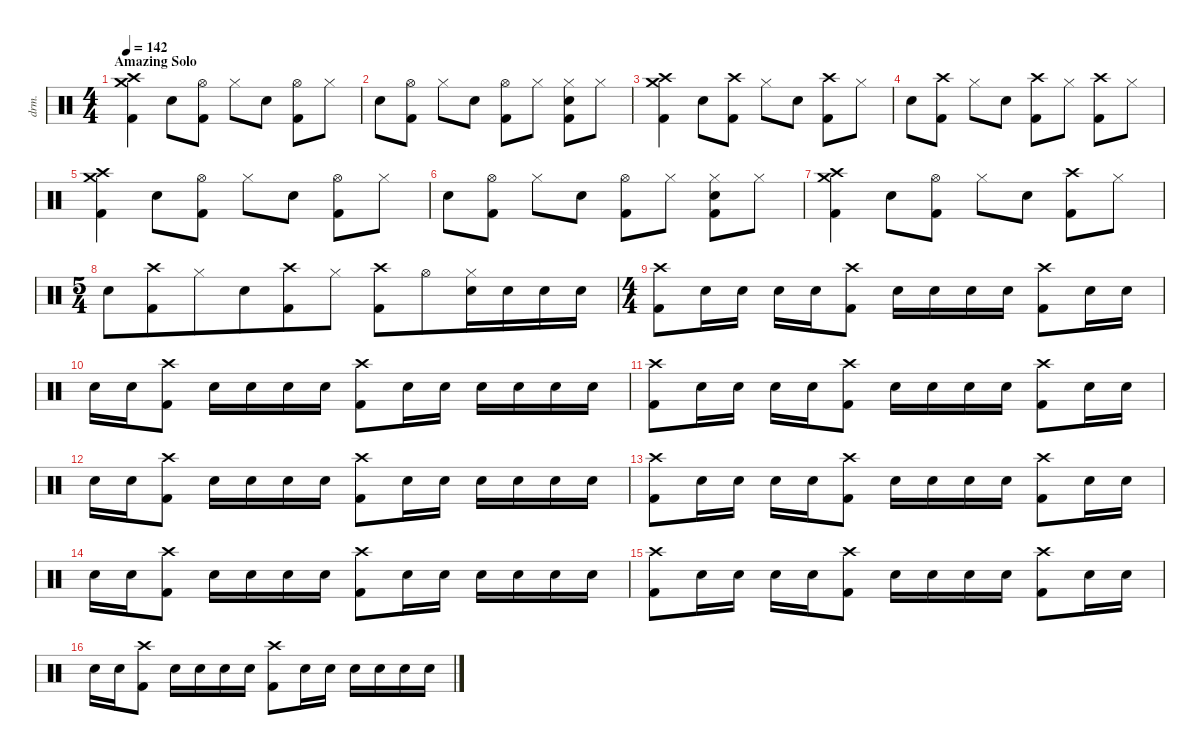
\defaultSystemsLayout 4
\hideDynamics
\bracketExtendMode nobrackets
\otherSystemsTrackNameOrientation horizontal
\track ("Drums" "drm.") {defaultSystemsLayout 4 instrument percussion}
\staff {score}
\articulation defaults
\ts (4 4)
\beaming (8 2 2 2 2)
\section ("" "Amazing Solo")
\tempo 142
\clef neutral
\ks c
("Crash high (hit)" "Crash medium (hit)" "Kick (hit) 2").4{dy f beam Down} "Snare (hit) 2".8{beam Down} ("Hi-Hat (open)" "Kick (hit) 2").8{beam Down} "Hi-Hat (closed)".8{beam Down} "Snare (hit) 2".8{beam Down} ("Hi-Hat (open)" "Kick (hit) 2").8{beam Down} "Hi-Hat (closed)".8{beam Down} |
"Snare (hit) 2".8{beam Down} ("Hi-Hat (open)" "Kick (hit) 2").8{beam Down} "Hi-Hat (closed)".8{beam Down} "Snare (hit) 2".8{beam Down} ("Hi-Hat (open)" "Kick (hit) 2").8{beam Down} "Hi-Hat (closed)".8{beam Down} ("Hi-Hat (closed)" "Snare (hit) 2" "Kick (hit) 2").8{beam Down} "Hi-Hat (closed)".8{beam Down} |
("Crash high (hit)" "Crash medium (hit)" "Kick (hit) 2").4{beam Down} "Snare (hit) 2".8{beam Down} ("Crash high (hit)" "Kick (hit) 2").8{beam Down} "Hi-Hat (closed)".8{beam Down} "Snare (hit) 2".8{beam Down} ("Crash high (hit)" "Kick (hit) 2").8{beam Down} "Hi-Hat (closed)".8{beam Down} |
"Snare (hit) 2".8{beam Down} ("Crash high (hit)" "Kick (hit) 2").8{beam Down} "Hi-Hat (closed)".8{beam Down} "Snare (hit) 2".8{beam Down} ("Crash high (hit)" "Kick (hit) 2").8{beam Down} "Hi-Hat (closed)".8{beam Down} ("Crash high (hit)" "Kick (hit) 2").8{beam Down} "Hi-Hat (closed)".8{beam Down} |
("Crash high (hit)" "Crash medium (hit)" "Kick (hit) 2").4{beam Down} "Snare (hit) 2".8{beam Down} ("Hi-Hat (open)" "Kick (hit) 2").8{beam Down} "Hi-Hat (closed)".8{beam Down} "Snare (hit) 2".8{beam Down} ("Hi-Hat (open)" "Kick (hit) 2").8{beam Down} "Hi-Hat (closed)".8{beam Down} |
"Snare (hit) 2".8{beam Down} ("Hi-Hat (open)" "Kick (hit) 2").8{beam Down} "Hi-Hat (closed)".8{beam Down} "Snare (hit) 2".8{beam Down} ("Hi-Hat (open)" "Kick (hit) 2").8{beam Down} "Hi-Hat (closed)".8{beam Down} ("Hi-Hat (closed)" "Snare (hit) 2" "Kick (hit) 2").8{beam Down} "Hi-Hat (closed)".8{beam Down} |
("Crash high (hit)" "Crash medium (hit)" "Kick (hit) 2").4{beam Down} "Snare (hit) 2".8{beam Down} ("Hi-Hat (open)" "Kick (hit) 2").8{beam Down} "Hi-Hat (closed)".8{beam Down} "Snare (hit) 2".8{beam Down} ("Crash high (hit)" "Kick (hit) 2").8{beam Down} "Hi-Hat (closed)".8{beam Down} |
\ts (5 4)
\beaming (8 6 4)
"Snare (hit) 2".8{beam Down} ("Crash high (hit)" "Kick (hit) 2").8{beam Down} "Hi-Hat (closed)".8{beam Down} "Snare (hit) 2".8{beam Down} ("Crash high (hit)" "Kick (hit) 2").8{beam Down} "Hi-Hat (closed)".8{beam Down} ("Crash high (hit)" "Kick (hit) 2").8{beam Down} "Hi-Hat (open)".8{beam Down} ("Hi-Hat (closed)" "Snare (hit) 2").16{beam Down} "Snare (hit) 2".16{beam Down} "Snare (hit) 2".16{beam Down} "Snare (hit) 2".16{beam Down} |
\ts (4 4)
\beaming (8 2 2 2 2)
("Crash high (hit)" "Kick (hit) 2").8{beam Down} "Snare (hit) 2".16{beam Down} "Snare (hit) 2".16{beam Down} "Snare (hit) 2".16{beam Down} "Snare (hit) 2".16{beam Down} ("Crash high (hit)" "Kick (hit) 2").8{beam Down} "Snare (hit) 2".16{beam Down} "Snare (hit) 2".16{beam Down} "Snare (hit) 2".16{beam Down} "Snare (hit) 2".16{beam Down} ("Crash high (hit)" "Kick (hit) 2").8{beam Down} "Snare (hit) 2".16{beam Down} "Snare (hit) 2".16{beam Down} |
"Snare (hit) 2".16{beam Down} "Snare (hit) 2".16{beam Down} ("Crash high (hit)" "Kick (hit) 2").8{beam Down} "Snare (hit) 2".16{beam Down} "Snare (hit) 2".16{beam Down} "Snare (hit) 2".16{beam Down} "Snare (hit) 2".16{beam Down} ("Crash high (hit)" "Kick (hit) 2").8{beam Down} "Snare (hit) 2".16{beam Down} "Snare (hit) 2".16{beam Down} "Snare (hit) 2".16{beam Down} "Snare (hit) 2".16{beam Down} "Snare (hit) 2".16{beam Down} "Snare (hit) 2".16{beam Down} |
("Crash high (hit)" "Kick (hit) 2").8{beam Down} "Snare (hit) 2".16{beam Down} "Snare (hit) 2".16{beam Down} "Snare (hit) 2".16{beam Down} "Snare (hit) 2".16{beam Down} ("Crash high (hit)" "Kick (hit) 2").8{beam Down} "Snare (hit) 2".16{beam Down} "Snare (hit) 2".16{beam Down} "Snare (hit) 2".16{beam Down} "Snare (hit) 2".16{beam Down} ("Crash high (hit)" "Kick (hit) 2").8{beam Down} "Snare (hit) 2".16{beam Down} "Snare (hit) 2".16{beam Down} |
"Snare (hit) 2".16{beam Down} "Snare (hit) 2".16{beam Down} ("Crash high (hit)" "Kick (hit) 2").8{beam Down} "Snare (hit) 2".16{beam Down} "Snare (hit) 2".16{beam Down} "Snare (hit) 2".16{beam Down} "Snare (hit) 2".16{beam Down} ("Crash high (hit)" "Kick (hit) 2").8{beam Down} "Snare (hit) 2".16{beam Down} "Snare (hit) 2".16{beam Down} "Snare (hit) 2".16{beam Down} "Snare (hit) 2".16{beam Down} "Snare (hit) 2".16{beam Down} "Snare (hit) 2".16{beam Down} |
("Crash high (hit)" "Kick (hit) 2").8{beam Down} "Snare (hit) 2".16{beam Down} "Snare (hit) 2".16{beam Down} "Snare (hit) 2".16{beam Down} "Snare (hit) 2".16{beam Down} ("Crash high (hit)" "Kick (hit) 2").8{beam Down} "Snare (hit) 2".16{beam Down} "Snare (hit) 2".16{beam Down} "Snare (hit) 2".16{beam Down} "Snare (hit) 2".16{beam Down} ("Crash high (hit)" "Kick (hit) 2").8{beam Down} "Snare (hit) 2".16{beam Down} "Snare (hit) 2".16{beam Down} |
"Snare (hit) 2".16{beam Down} "Snare (hit) 2".16{beam Down} ("Crash high (hit)" "Kick (hit) 2").8{beam Down} "Snare (hit) 2".16{beam Down} "Snare (hit) 2".16{beam Down} "Snare (hit) 2".16{beam Down} "Snare (hit) 2".16{beam Down} ("Crash high (hit)" "Kick (hit) 2").8{beam Down} "Snare (hit) 2".16{beam Down} "Snare (hit) 2".16{beam Down} "Snare (hit) 2".16{beam Down} "Snare (hit) 2".16{beam Down} "Snare (hit) 2".16{beam Down} "Snare (hit) 2".16{beam Down} |
("Crash high (hit)" "Kick (hit) 2").8{beam Down} "Snare (hit) 2".16{beam Down} "Snare (hit) 2".16{beam Down} "Snare (hit) 2".16{beam Down} "Snare (hit) 2".16{beam Down} ("Crash high (hit)" "Kick (hit) 2").8{beam Down} "Snare (hit) 2".16{beam Down} "Snare (hit) 2".16{beam Down} "Snare (hit) 2".16{beam Down} "Snare (hit) 2".16{beam Down} ("Crash high (hit)" "Kick (hit) 2").8{beam Down} "Snare (hit) 2".16{beam Down} "Snare (hit) 2".16{beam Down} |
"Snare (hit) 2".16{beam Down} "Snare (hit) 2".16{beam Down} ("Crash high (hit)" "Kick (hit) 2").8{beam Down} "Snare (hit) 2".16{beam Down} "Snare (hit) 2".16{beam Down} "Snare (hit) 2".16{beam Down} "Snare (hit) 2".16{beam Down} ("Crash high (hit)" "Kick (hit) 2").8{beam Down} "Snare (hit) 2".16{beam Down} "Snare (hit) 2".16{beam Down} "Snare (hit) 2".16{beam Down} "Snare (hit) 2".16{beam Down} "Snare (hit) 2".16{beam Down} "Snare (hit) 2".16{beam Down}
